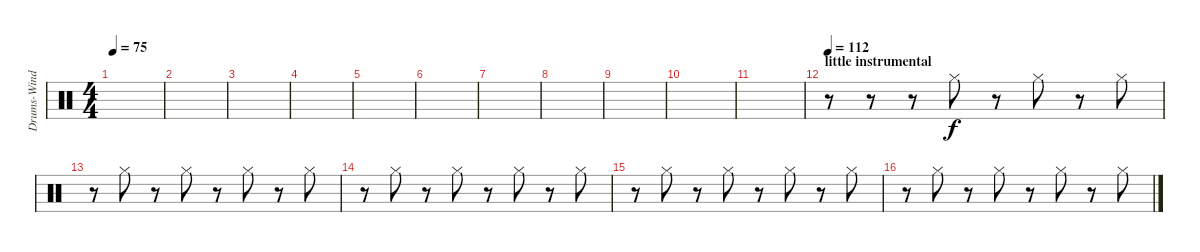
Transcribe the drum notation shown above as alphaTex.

\track ("Drums-Wind (Bengerg)" "Drums-Wind") {instrument percussion}
\staff {score}
\articulation defaults
\ts (4 4)
\tempo 75
\clef neutral
\ks c
|
|
|
|
|
|
|
|
|
|
|
\section ("" "little instrumental")
\tempo 112
r.8 r.8 r.8 "Hi-Hat (closed)".8 r.8 "Hi-Hat (closed)".8 r.8 "Hi-Hat (closed)".8 |
r.8 "Hi-Hat (closed)".8 r.8 "Hi-Hat (closed)".8 r.8 "Hi-Hat (closed)".8 r.8 "Hi-Hat (closed)".8 |
r.8 "Hi-Hat (closed)".8 r.8 "Hi-Hat (closed)".8 r.8 "Hi-Hat (closed)".8 r.8 "Hi-Hat (closed)".8 |
r.8 "Hi-Hat (closed)".8 r.8 "Hi-Hat (closed)".8 r.8 "Hi-Hat (closed)".8 r.8 "Hi-Hat (closed)".8 |
r.8 "Hi-Hat (closed)".8 r.8 "Hi-Hat (closed)".8 r.8 "Hi-Hat (closed)".8 r.8 "Hi-Hat (closed)".8
